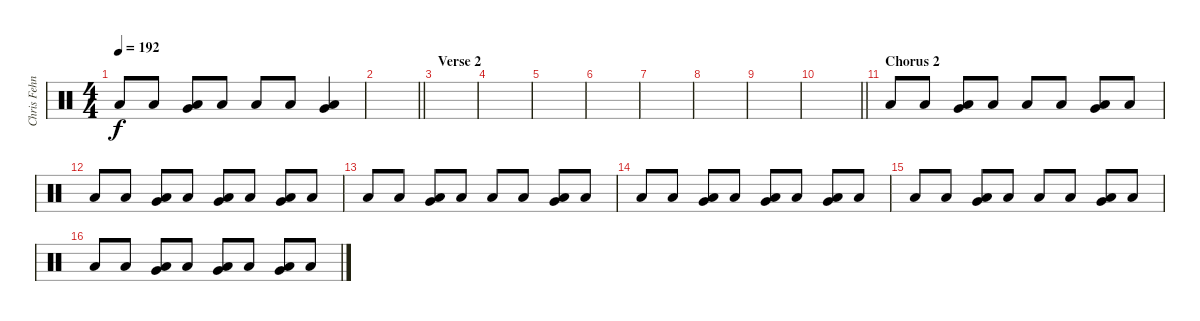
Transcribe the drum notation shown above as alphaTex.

\track ("Chris Fehn" "Chris Fehn") {instrument percussion}
\staff {score}
\articulation defaults
\ts (4 4)
\tempo 192
\clef neutral
\ks c "Low Floor Tom (hit)".8{dy f} "Low Floor Tom (hit)".8
("Very Low Tom (hit)" "Low Floor Tom (hit)").8 "Low Floor Tom (hit)".8 "Low Floor Tom (hit)".8 "Low Floor Tom (hit)".8 ("Very Low Tom (hit)" "Low Floor Tom (hit)").4 |
\barLineRight lightlight
|
\section ("" "Verse 2")
|
|
|
|
|
|
|
\barLineRight lightlight
|
\section ("" "Chorus 2")
"Low Floor Tom (hit)".8 "Low Floor Tom (hit)".8 ("Very Low Tom (hit)" "Low Floor Tom (hit)").8 "Low Floor Tom (hit)".8 "Low Floor Tom (hit)".8 "Low Floor Tom (hit)".8 ("Very Low Tom (hit)" "Low Floor Tom (hit)").8 "Low Floor Tom (hit)".8 |
"Low Floor Tom (hit)".8 "Low Floor Tom (hit)".8 ("Very Low Tom (hit)" "Low Floor Tom (hit)").8 "Low Floor Tom (hit)".8 ("Very Low Tom (hit)" "Low Floor Tom (hit)").8 "Low Floor Tom (hit)".8 ("Very Low Tom (hit)" "Low Floor Tom (hit)").8 "Low Floor Tom (hit)".8 |
"Low Floor Tom (hit)".8 "Low Floor Tom (hit)".8 ("Very Low Tom (hit)" "Low Floor Tom (hit)").8 "Low Floor Tom (hit)".8 "Low Floor Tom (hit)".8 "Low Floor Tom (hit)".8 ("Very Low Tom (hit)" "Low Floor Tom (hit)").8 "Low Floor Tom (hit)".8 |
"Low Floor Tom (hit)".8 "Low Floor Tom (hit)".8 ("Very Low Tom (hit)" "Low Floor Tom (hit)").8 "Low Floor Tom (hit)".8 ("Very Low Tom (hit)" "Low Floor Tom (hit)").8 "Low Floor Tom (hit)".8 ("Very Low Tom (hit)" "Low Floor Tom (hit)").8 "Low Floor Tom (hit)".8 |
"Low Floor Tom (hit)".8 "Low Floor Tom (hit)".8 ("Very Low Tom (hit)" "Low Floor Tom (hit)").8 "Low Floor Tom (hit)".8 "Low Floor Tom (hit)".8 "Low Floor Tom (hit)".8 ("Very Low Tom (hit)" "Low Floor Tom (hit)").8 "Low Floor Tom (hit)".8 |
"Low Floor Tom (hit)".8 "Low Floor Tom (hit)".8 ("Very Low Tom (hit)" "Low Floor Tom (hit)").8 "Low Floor Tom (hit)".8 ("Very Low Tom (hit)" "Low Floor Tom (hit)").8 "Low Floor Tom (hit)".8 ("Very Low Tom (hit)" "Low Floor Tom (hit)").8 "Low Floor Tom (hit)".8
